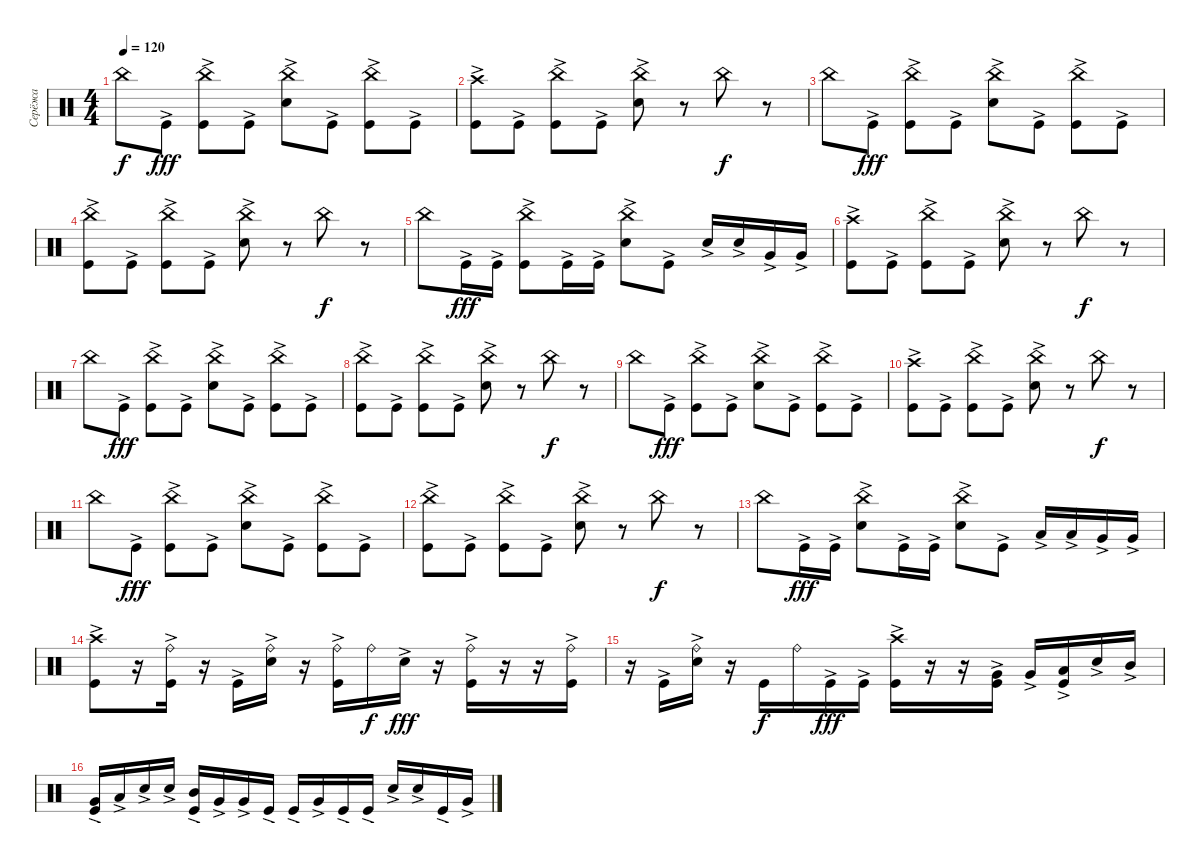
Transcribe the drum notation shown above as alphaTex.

\track ("Серёжа" "Серёжа") {instrument percussion}
\staff {score}
\articulation defaults
\ts (4 4)
\tempo 120
\clef neutral
\ks c "China (hit)".8{dy f} "Kick (hit)"{ac}.8{dy fff}
("China (hit)" "Kick (hit)"{ac}).8 "Kick (hit)"{ac}.8 ("China (hit)" "Snare (hit) 2"{ac}).8 "Kick (hit)"{ac}.8 ("China (hit)" "Kick (hit)"{ac}).8 "Kick (hit)"{ac}.8 |
("Crash high (hit)"{ac} "Kick (hit)"{ac}).8 "Kick (hit)"{ac}.8 ("China (hit)" "Kick (hit)"{ac}).8 "Kick (hit)"{ac}.8 ("China (hit)" "Snare (hit) 2"{ac}).8 r.8 "China (hit)".8{dy f} r.8 |
"China (hit)".8 "Kick (hit)"{ac}.8{dy fff} ("China (hit)" "Kick (hit)"{ac}).8 "Kick (hit)"{ac}.8 ("China (hit)" "Snare (hit) 2"{ac}).8 "Kick (hit)"{ac}.8 ("China (hit)" "Kick (hit)"{ac}).8 "Kick (hit)"{ac}.8 |
("China (hit)" "Kick (hit)"{ac}).8 "Kick (hit)"{ac}.8 ("China (hit)" "Kick (hit)"{ac}).8 "Kick (hit)"{ac}.8 ("China (hit)" "Snare (hit) 2"{ac}).8 r.8 "China (hit)".8{dy f} r.8 |
"China (hit)".8 "Kick (hit)"{ac}.16{dy fff} "Kick (hit)"{ac}.16 ("China (hit)" "Kick (hit)"{ac}).8 "Kick (hit)"{ac}.16 "Kick (hit)"{ac}.16 ("China (hit)" "Snare (hit) 2"{ac}).8 "Kick (hit)"{ac}.8 "Snare (hit) 2"{ac}.16 "Snare (hit) 2"{ac}.16 "Very Low Tom (hit)"{ac}.16 "Very Low Tom (hit)"{ac}.16 |
("Crash high (hit)"{ac} "Kick (hit)"{ac}).8 "Kick (hit)"{ac}.8 ("China (hit)" "Kick (hit)"{ac}).8 "Kick (hit)"{ac}.8 ("China (hit)" "Snare (hit) 2"{ac}).8 r.8 "China (hit)".8{dy f} r.8 |
"China (hit)".8 "Kick (hit)"{ac}.8{dy fff} ("China (hit)" "Kick (hit)"{ac}).8 "Kick (hit)"{ac}.8 ("China (hit)" "Snare (hit) 2"{ac}).8 "Kick (hit)"{ac}.8 ("China (hit)" "Kick (hit)"{ac}).8 "Kick (hit)"{ac}.8 |
("China (hit)" "Kick (hit)"{ac}).8 "Kick (hit)"{ac}.8 ("China (hit)" "Kick (hit)"{ac}).8 "Kick (hit)"{ac}.8 ("China (hit)" "Snare (hit) 2"{ac}).8 r.8 "China (hit)".8{dy f} r.8 |
"China (hit)".8 "Kick (hit)"{ac}.8{dy fff} ("China (hit)" "Kick (hit)"{ac}).8 "Kick (hit)"{ac}.8 ("China (hit)" "Snare (hit) 2"{ac}).8 "Kick (hit)"{ac}.8 ("China (hit)" "Kick (hit)"{ac}).8 "Kick (hit)"{ac}.8 |
("Crash high (hit)"{ac} "Kick (hit)"{ac}).8 "Kick (hit)"{ac}.8 ("China (hit)" "Kick (hit)"{ac}).8 "Kick (hit)"{ac}.8 ("China (hit)" "Snare (hit) 2"{ac}).8 r.8 "China (hit)".8{dy f} r.8 |
"China (hit)".8 "Kick (hit)"{ac}.8{dy fff} ("China (hit)" "Kick (hit)"{ac}).8 "Kick (hit)"{ac}.8 ("China (hit)" "Snare (hit) 2"{ac}).8 "Kick (hit)"{ac}.8 ("China (hit)" "Kick (hit)"{ac}).8 "Kick (hit)"{ac}.8 |
("China (hit)" "Kick (hit)"{ac}).8 "Kick (hit)"{ac}.8 ("China (hit)" "Kick (hit)"{ac}).8 "Kick (hit)"{ac}.8 ("China (hit)" "Snare (hit) 2"{ac}).8 r.8 "China (hit)".8{dy f} r.8 |
"China (hit)".8 "Kick (hit)"{ac}.16{dy fff} "Kick (hit)"{ac}.16 ("China (hit)" "Snare (hit) 2"{ac}).8 "Kick (hit)"{ac}.16 "Kick (hit)"{ac}.16 ("China (hit)" "Snare (hit) 2"{ac}).8 "Kick (hit)"{ac}.8 "Low Tom (hit)"{ac}.16 "Low Tom (hit)"{ac}.16 "Very Low Tom (hit)"{ac}.16 "Very Low Tom (hit)"{ac}.16 |
("Crash high (hit)"{ac} "Kick (hit)"{ac}).8 r.16 ("Ride (bell)" "Kick (hit)"{ac}).16 r.16 "Kick (hit)"{ac}.16 ("Ride (bell)" "Snare (hit) 2"{ac}).16 r.16 ("Ride (bell)" "Kick (hit)"{ac}).16 "Ride (bell)".16{dy f} "Snare (hit) 2"{ac}.16{dy fff} r.16 ("Ride (bell)" "Kick (hit)"{ac}).16 r.16 r.16 ("Ride (bell)" "Kick (hit)"{ac}).16 |
r.16 "Kick (hit)"{ac}.16 ("Ride (bell)" "Snare (hit) 2"{ac}).16 r.16 "Kick (hit)".16{dy f} "Ride (bell)".16 "Kick (hit)"{ac}.16{dy fff} "Kick (hit)"{ac}.16 ("Crash high (hit)"{ac} "Kick (hit)"{ac}).16 r.16 r.16 ("Kick (hit)" "Very Low Tom (hit)"{ac}).16 "Very Low Tom (hit)"{ac}.16 ("Kick (hit)" "Low Tom (hit)"{ac}).16 "Snare (hit) 2"{ac}.16 "Mid Tom (hit)"{ac}.16 |
("Kick (hit)"{ac} "Very Low Tom (hit)"{ac}).16 "Low Tom (hit)"{ac}.16 "Snare (hit) 2"{ac}.16 "Snare (hit) 2"{ac}.16 ("Kick (hit)"{ac} "Mid Tom (hit)"{ac}).16 "Very Low Tom (hit)"{ac}.16 "Very Low Tom (hit)"{ac}.16 "Kick (hit)"{ac}.16 "Kick (hit)"{ac}.16 "Very Low Tom (hit)"{ac}.16 "Kick (hit)"{ac}.16 "Kick (hit)"{ac}.16 "Snare (hit) 2"{ac}.16 "Snare (hit) 2"{ac}.16 "Kick (hit)"{ac}.16 "Very Low Tom (hit)"{ac}.16
